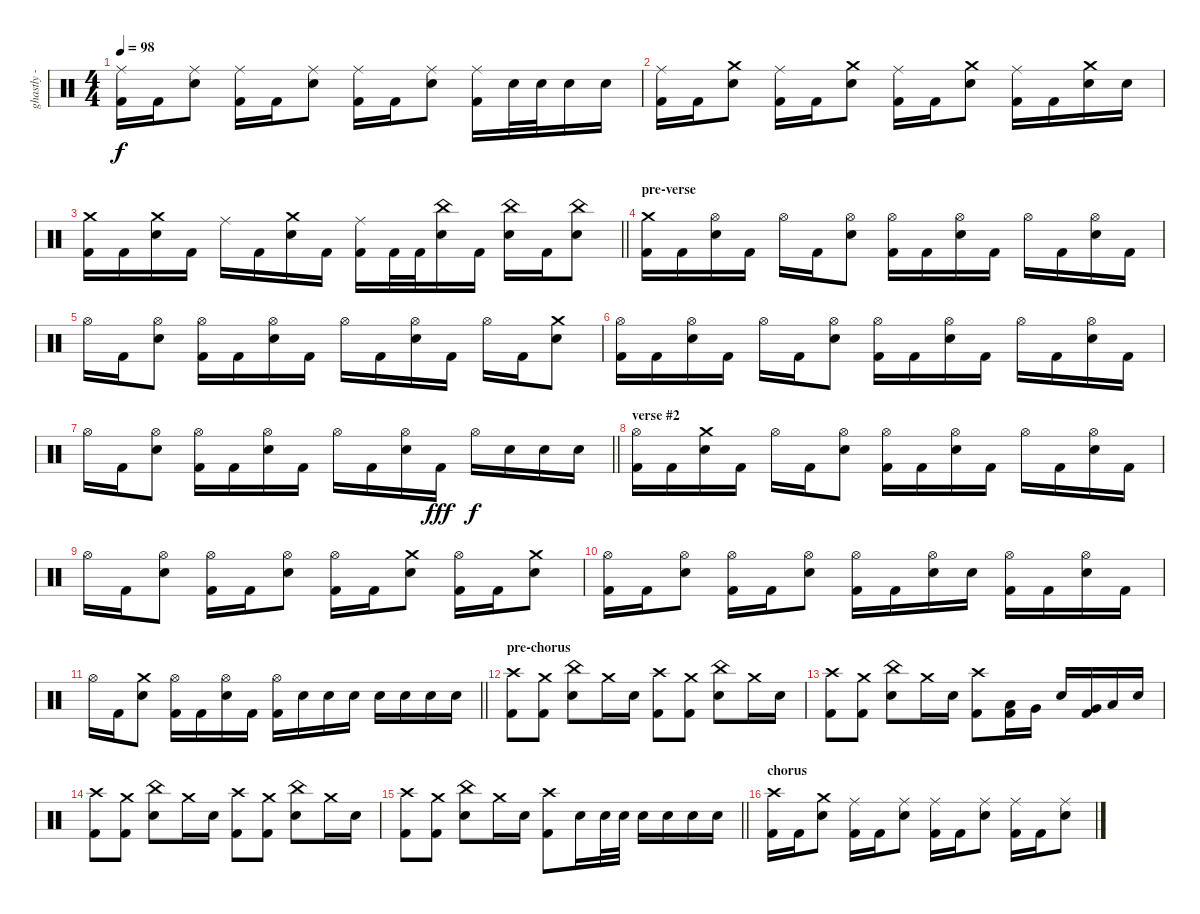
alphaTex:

\track ("ghastly - drums" "ghastly - ") {instrument percussion}
\staff {score}
\articulation defaults
\ts (4 4)
\tempo 98
\clef neutral
\ks c
("Ride (middle)" "Kick (hit) 2").16{dy f} "Kick (hit) 2".16 ("Ride (middle)" "Electric Snare (hit)").8 ("Ride (middle)" "Kick (hit) 2").16 "Kick (hit) 2".16 ("Ride (middle)" "Electric Snare (hit)").8 ("Ride (middle)" "Kick (hit) 2").16 "Kick (hit) 2".16 ("Ride (middle)" "Electric Snare (hit)").8 ("Ride (middle)" "Kick (hit) 2").16 "Electric Snare (hit)".32 "Electric Snare (hit)".32 "Electric Snare (hit)".16 "Electric Snare (hit)".16 |
("Ride (middle)" "Kick (hit) 2").16 "Kick (hit) 2".16 ("Crash medium (hit)" "Electric Snare (hit)").8 ("Ride (middle)" "Kick (hit) 2").16 "Kick (hit) 2".16 ("Crash medium (hit)" "Electric Snare (hit)").8 ("Ride (middle)" "Kick (hit) 2").16 "Kick (hit) 2".16 ("Crash medium (hit)" "Electric Snare (hit)").8 ("Ride (middle)" "Kick (hit) 2").16 "Kick (hit) 2".16 ("Crash medium (hit)" "Electric Snare (hit)").16 "Electric Snare (hit)".16 |
\barLineRight lightlight
("Crash medium (hit)" "Kick (hit) 2").16 "Kick (hit) 2".16 ("Crash medium (hit)" "Electric Snare (hit)").16 "Kick (hit) 2".16 "Ride (middle)".16 "Kick (hit) 2".16 ("Crash medium (hit)" "Electric Snare (hit)").16 "Kick (hit) 2".16 ("Ride (middle)" "Kick (hit) 2").16 "Kick (hit) 2".32 "Kick (hit) 2".32 ("China (hit)" "Electric Snare (hit)").16 "Kick (hit) 2".16 ("China (hit)" "Electric Snare (hit)").16 "Kick (hit) 2".16 ("China (hit)" "Electric Snare (hit)").8 |
\section ("" "pre-verse")
("Crash medium (hit)" "Kick (hit) 2").16 "Kick (hit) 2".16 ("Hi-Hat (open)" "Electric Snare (hit)").16 "Kick (hit) 2".16 "Hi-Hat (open)".16 "Kick (hit) 2".16 ("Hi-Hat (open)" "Electric Snare (hit)").8 ("Hi-Hat (open)" "Kick (hit) 2").16 "Kick (hit) 2".16 ("Hi-Hat (open)" "Electric Snare (hit)").16 "Kick (hit) 2".16 "Hi-Hat (open)".16 "Kick (hit) 2".16 ("Hi-Hat (open)" "Electric Snare (hit)").16 "Kick (hit) 2".16 |
"Hi-Hat (open)".16 "Kick (hit) 2".16 ("Hi-Hat (open)" "Electric Snare (hit)").8 ("Hi-Hat (open)" "Kick (hit) 2").16 "Kick (hit) 2".16 ("Hi-Hat (open)" "Electric Snare (hit)").16 "Kick (hit) 2".16 "Hi-Hat (open)".16 "Kick (hit) 2".16 ("Hi-Hat (open)" "Electric Snare (hit)").16 "Kick (hit) 2".16 "Hi-Hat (open)".16 "Kick (hit) 2".16 ("Crash medium (hit)" "Electric Snare (hit)").8 |
("Hi-Hat (open)" "Kick (hit) 2").16 "Kick (hit) 2".16 ("Hi-Hat (open)" "Electric Snare (hit)").16 "Kick (hit) 2".16 "Hi-Hat (open)".16 "Kick (hit) 2".16 ("Hi-Hat (open)" "Electric Snare (hit)").8 ("Hi-Hat (open)" "Kick (hit) 2").16 "Kick (hit) 2".16 ("Hi-Hat (open)" "Electric Snare (hit)").16 "Kick (hit) 2".16 "Hi-Hat (open)".16 "Kick (hit) 2".16 ("Hi-Hat (open)" "Electric Snare (hit)").16 "Kick (hit) 2".16 |
\barLineRight lightlight "Hi-Hat (open)".16 "Kick (hit) 2".16
("Hi-Hat (open)" "Electric Snare (hit)").8 ("Hi-Hat (open)" "Kick (hit) 2").16 "Kick (hit) 2".16 ("Hi-Hat (open)" "Electric Snare (hit)").16 "Kick (hit) 2".16 "Hi-Hat (open)".16 "Kick (hit) 2".16 ("Hi-Hat (open)" "Electric Snare (hit)").16 "Kick (hit) 2".16{dy fff} "Hi-Hat (open)".16{dy f} "Electric Snare (hit)".16 "Electric Snare (hit)".16 "Electric Snare (hit)".16 |
\section ("" "verse #2")
("Hi-Hat (open)" "Kick (hit) 2").16 "Kick (hit) 2".16 ("Crash medium (hit)" "Electric Snare (hit)").16 "Kick (hit) 2".16 "Hi-Hat (open)".16 "Kick (hit) 2".16 ("Hi-Hat (open)" "Electric Snare (hit)").8 ("Hi-Hat (open)" "Kick (hit) 2").16 "Kick (hit) 2".16 ("Hi-Hat (open)" "Electric Snare (hit)").16 "Kick (hit) 2".16 "Hi-Hat (open)".16 "Kick (hit) 2".16 ("Hi-Hat (open)" "Electric Snare (hit)").16 "Kick (hit) 2".16 |
"Hi-Hat (open)".16 "Kick (hit) 2".16 ("Hi-Hat (open)" "Electric Snare (hit)").8 ("Hi-Hat (open)" "Kick (hit) 2").16 "Kick (hit) 2".16 ("Hi-Hat (open)" "Electric Snare (hit)").8 ("Hi-Hat (open)" "Kick (hit) 2").16 "Kick (hit) 2".16 ("Crash medium (hit)" "Electric Snare (hit)").8 ("Hi-Hat (open)" "Kick (hit) 2").16 "Kick (hit) 2".16 ("Crash medium (hit)" "Electric Snare (hit)").8 |
("Hi-Hat (open)" "Kick (hit) 2").16 "Kick (hit) 2".16 ("Hi-Hat (open)" "Electric Snare (hit)").8 ("Hi-Hat (open)" "Kick (hit) 2").16 "Kick (hit) 2".16 ("Hi-Hat (open)" "Electric Snare (hit)").8 ("Hi-Hat (open)" "Kick (hit) 2").16 "Kick (hit) 2".16 ("Hi-Hat (open)" "Electric Snare (hit)").16 "Electric Snare (hit)".16 ("Hi-Hat (open)" "Kick (hit) 2").16 "Kick (hit) 2".16 ("Hi-Hat (open)" "Electric Snare (hit)").16 "Kick (hit) 2".16 |
\barLineRight lightlight "Hi-Hat (open)".16 "Kick (hit) 2".16
("Crash medium (hit)" "Electric Snare (hit)").8 ("Hi-Hat (open)" "Kick (hit) 2").16 "Kick (hit) 2".16 ("Hi-Hat (open)" "Electric Snare (hit)").16 "Kick (hit) 2".16 ("Hi-Hat (open)" "Kick (hit) 2").16 "Electric Snare (hit)".16 "Electric Snare (hit)".16 "Electric Snare (hit)".16 "Electric Snare (hit)".16 "Electric Snare (hit)".16 "Electric Snare (hit)".16 "Electric Snare (hit)".16 |
\section ("" "pre-chorus")
("Crash high (hit)" "Kick (hit) 2").8 ("Crash medium (hit)" "Kick (hit) 2").8 ("China (hit)" "Electric Snare (hit)").8 "Crash medium (hit)".16 "Electric Snare (hit)".16 ("Crash high (hit)" "Kick (hit) 2").8 ("Crash medium (hit)" "Kick (hit) 2").8 ("China (hit)" "Electric Snare (hit)").8 "Crash medium (hit)".16 "Electric Snare (hit)".16 |
("Crash high (hit)" "Kick (hit) 2").8 ("Crash medium (hit)" "Kick (hit) 2").8 ("China (hit)" "Electric Snare (hit)").8 "Crash medium (hit)".16 "Electric Snare (hit)".16 ("Crash high (hit)" "Kick (hit) 2").8 ("Low Tom (hit)" "Kick (hit) 2").16 "Very Low Tom (hit)".16 "Electric Snare (hit)".16 ("Very Low Tom (hit)" "Kick (hit) 2").16 "Low Floor Tom (hit)".16 "Electric Snare (hit)".16 |
("Crash high (hit)" "Kick (hit) 2").8 ("Crash medium (hit)" "Kick (hit) 2").8 ("China (hit)" "Electric Snare (hit)").8 "Crash medium (hit)".16 "Electric Snare (hit)".16 ("Crash high (hit)" "Kick (hit) 2").8 ("Crash medium (hit)" "Kick (hit) 2").8 ("China (hit)" "Electric Snare (hit)").8 "Crash medium (hit)".16 "Electric Snare (hit)".16 |
\barLineRight lightlight
("Crash high (hit)" "Kick (hit) 2").8 ("Crash medium (hit)" "Kick (hit) 2").8 ("China (hit)" "Electric Snare (hit)").8 "Crash medium (hit)".16 "Electric Snare (hit)".16 ("Crash high (hit)" "Kick (hit) 2").8 "Electric Snare (hit)".16 "Electric Snare (hit)".32 "Electric Snare (hit)".32 "Electric Snare (hit)".16 "Electric Snare (hit)".16 "Electric Snare (hit)".16 "Electric Snare (hit)".16 |
\section ("" "chorus")
("Crash high (hit)" "Kick (hit) 2").16 "Kick (hit) 2".16 ("Crash medium (hit)" "Electric Snare (hit)").8 ("Ride (middle)" "Kick (hit) 2").16 "Kick (hit) 2".16 ("Ride (middle)" "Electric Snare (hit)").8 ("Ride (middle)" "Kick (hit) 2").16 "Kick (hit) 2".16 ("Ride (middle)" "Electric Snare (hit)").8 ("Ride (middle)" "Kick (hit) 2").16 "Kick (hit) 2".16 ("Ride (middle)" "Electric Snare (hit)").8
